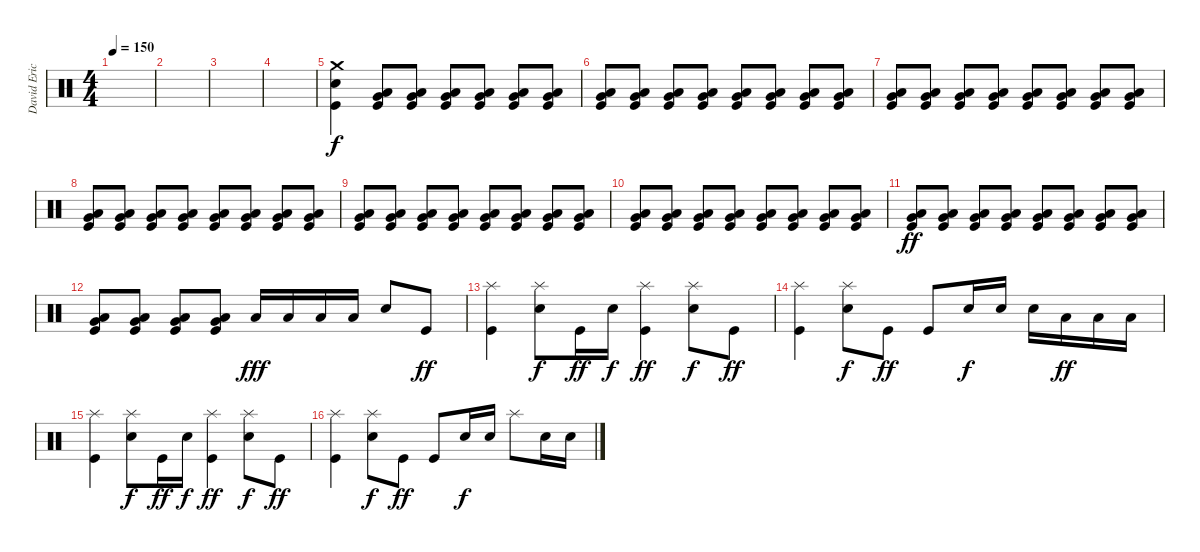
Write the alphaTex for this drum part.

\track ("David Eric Grohl" "David Eric") {instrument percussion}
\staff {score}
\articulation defaults
\ts (4 4)
\tempo 150
\clef neutral
\ks c
|
|
|
|
("Crash medium (hit)" "Snare (hit) 2" "Kick (hit)").4 ("Low Tom (hit)" "Very Low Tom (hit)" "Kick (hit)").8 ("Low Tom (hit)" "Very Low Tom (hit)" "Kick (hit)").8 ("Low Tom (hit)" "Very Low Tom (hit)" "Kick (hit)").8 ("Low Tom (hit)" "Very Low Tom (hit)" "Kick (hit)").8 ("Low Tom (hit)" "Very Low Tom (hit)" "Kick (hit)").8 ("Low Tom (hit)" "Very Low Tom (hit)" "Kick (hit)").8 |
("Low Tom (hit)" "Very Low Tom (hit)" "Kick (hit)").8 ("Low Tom (hit)" "Very Low Tom (hit)" "Kick (hit)").8 ("Low Tom (hit)" "Very Low Tom (hit)" "Kick (hit)").8 ("Low Tom (hit)" "Very Low Tom (hit)" "Kick (hit)").8 ("Low Tom (hit)" "Very Low Tom (hit)" "Kick (hit)").8 ("Low Tom (hit)" "Very Low Tom (hit)" "Kick (hit)").8 ("Low Tom (hit)" "Very Low Tom (hit)" "Kick (hit)").8 ("Low Tom (hit)" "Very Low Tom (hit)" "Kick (hit)").8 |
("Low Tom (hit)" "Very Low Tom (hit)" "Kick (hit)").8 ("Low Tom (hit)" "Very Low Tom (hit)" "Kick (hit)").8 ("Low Tom (hit)" "Very Low Tom (hit)" "Kick (hit)").8 ("Low Tom (hit)" "Very Low Tom (hit)" "Kick (hit)").8 ("Low Tom (hit)" "Very Low Tom (hit)" "Kick (hit)").8 ("Low Tom (hit)" "Very Low Tom (hit)" "Kick (hit)").8 ("Low Tom (hit)" "Very Low Tom (hit)" "Kick (hit)").8 ("Low Tom (hit)" "Very Low Tom (hit)" "Kick (hit)").8 |
("Low Tom (hit)" "Very Low Tom (hit)" "Kick (hit)").8 ("Low Tom (hit)" "Very Low Tom (hit)" "Kick (hit)").8 ("Low Tom (hit)" "Very Low Tom (hit)" "Kick (hit)").8 ("Low Tom (hit)" "Very Low Tom (hit)" "Kick (hit)").8 ("Low Tom (hit)" "Very Low Tom (hit)" "Kick (hit)").8 ("Low Tom (hit)" "Very Low Tom (hit)" "Kick (hit)").8 ("Low Tom (hit)" "Very Low Tom (hit)" "Kick (hit)").8 ("Low Tom (hit)" "Very Low Tom (hit)" "Kick (hit)").8 |
("Low Tom (hit)" "Very Low Tom (hit)" "Kick (hit)").8 ("Low Tom (hit)" "Very Low Tom (hit)" "Kick (hit)").8 ("Low Tom (hit)" "Very Low Tom (hit)" "Kick (hit)").8 ("Low Tom (hit)" "Very Low Tom (hit)" "Kick (hit)").8 ("Low Tom (hit)" "Very Low Tom (hit)" "Kick (hit)").8 ("Low Tom (hit)" "Very Low Tom (hit)" "Kick (hit)").8 ("Low Tom (hit)" "Very Low Tom (hit)" "Kick (hit)").8 ("Low Tom (hit)" "Very Low Tom (hit)" "Kick (hit)").8 |
("Low Tom (hit)" "Very Low Tom (hit)" "Kick (hit)").8 ("Low Tom (hit)" "Very Low Tom (hit)" "Kick (hit)").8 ("Low Tom (hit)" "Very Low Tom (hit)" "Kick (hit)").8 ("Low Tom (hit)" "Very Low Tom (hit)" "Kick (hit)").8 ("Low Tom (hit)" "Very Low Tom (hit)" "Kick (hit)").8 ("Low Tom (hit)" "Very Low Tom (hit)" "Kick (hit)").8 ("Low Tom (hit)" "Very Low Tom (hit)" "Kick (hit)").8 ("Low Tom (hit)" "Very Low Tom (hit)" "Kick (hit)").8 |
("Low Tom (hit)" "Very Low Tom (hit)" "Kick (hit)").8{dy ff} ("Low Tom (hit)" "Very Low Tom (hit)" "Kick (hit)").8 ("Low Tom (hit)" "Very Low Tom (hit)" "Kick (hit)").8 ("Low Tom (hit)" "Very Low Tom (hit)" "Kick (hit)").8 ("Low Tom (hit)" "Very Low Tom (hit)" "Kick (hit)").8 ("Low Tom (hit)" "Very Low Tom (hit)" "Kick (hit)").8 ("Low Tom (hit)" "Very Low Tom (hit)" "Kick (hit)").8 ("Low Tom (hit)" "Very Low Tom (hit)" "Kick (hit)").8 |
("Low Tom (hit)" "Very Low Tom (hit)" "Kick (hit)").8 ("Low Tom (hit)" "Very Low Tom (hit)" "Kick (hit)").8 ("Low Tom (hit)" "Very Low Tom (hit)" "Kick (hit)").8 ("Low Tom (hit)" "Very Low Tom (hit)" "Kick (hit)").8 "Low Tom (hit)".16{dy fff} "Low Tom (hit)".16 "Low Tom (hit)".16 "Low Tom (hit)".16 "Snare (hit) 2".8 "Kick (hit)".8{dy ff} |
("Splash (hit)" "Kick (hit)").4 ("Splash (hit)" "Snare (hit) 2").8{dy f} "Kick (hit)".16{dy ff} "Snare (hit) 2".16{dy f} ("Splash (hit)" "Kick (hit)").4{dy ff} ("Splash (hit)" "Snare (hit) 2").8{dy f} "Kick (hit)".8{dy ff} |
("Splash (hit)" "Kick (hit)").4 ("Splash (hit)" "Snare (hit) 2").8{dy f} "Kick (hit)".8{dy ff} "Kick (hit)".8 "Snare (hit) 2".16{dy f} "Snare (hit) 2".16 "Snare (hit) 2".16 "Low Tom (hit)".16{dy ff} "Low Tom (hit)".16 "Low Tom (hit)".16 |
("Splash (hit)" "Kick (hit)").4 ("Splash (hit)" "Snare (hit) 2").8{dy f} "Kick (hit)".16{dy ff} "Snare (hit) 2".16{dy f} ("Splash (hit)" "Kick (hit)").4{dy ff} ("Splash (hit)" "Snare (hit) 2").8{dy f} "Kick (hit)".8{dy ff} |
("Splash (hit)" "Kick (hit)").4 ("Splash (hit)" "Snare (hit) 2").8{dy f} "Kick (hit)".8{dy ff} "Kick (hit)".8 "Snare (hit) 2".16{dy f} "Snare (hit) 2".16 "Splash (hit)".8 "Snare (hit) 2".16 "Snare (hit) 2".16
